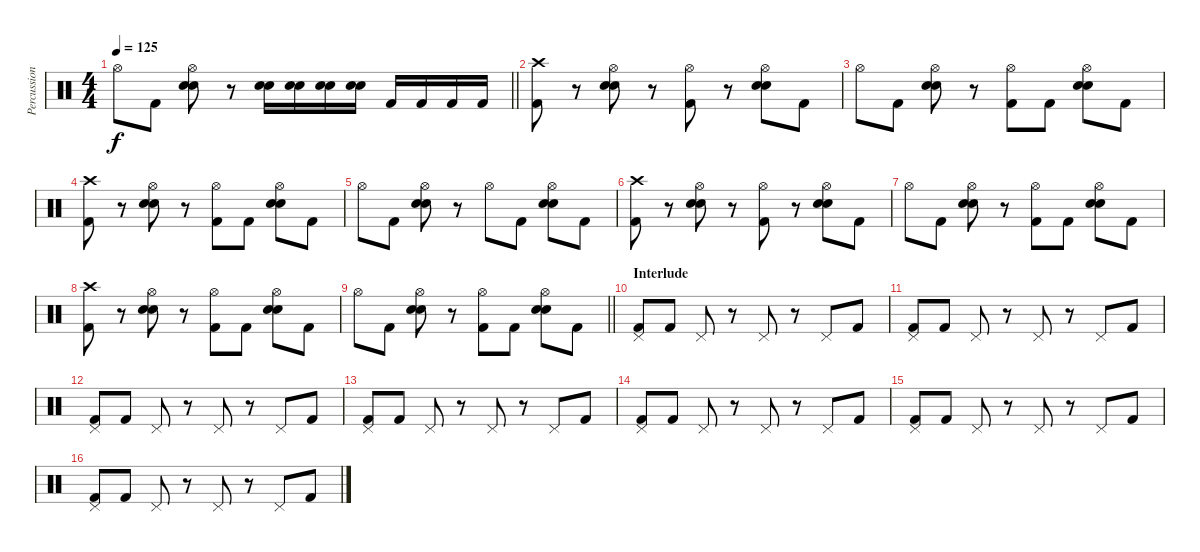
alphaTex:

\track ("Percussion" "Percussion") {instrument percussion}
\staff {score}
\articulation defaults
\ts (4 4)
\tempo 125
\clef neutral
\barLineRight lightlight
\ks c "Hi-Hat (open)".8{dy f} "Kick (hit) 2".8
("Hi-Hat (open)" "Snare (hit) 2" "Electric Snare (hit)").8 r.8 ("Snare (hit) 2" "Electric Snare (hit)").16 ("Snare (hit) 2" "Electric Snare (hit)").16 ("Snare (hit) 2" "Electric Snare (hit)").16 ("Snare (hit) 2" "Electric Snare (hit)").16 "Kick (hit) 2".16 "Kick (hit) 2".16 "Kick (hit) 2".16 "Kick (hit) 2".16 |
("Crash high (hit)" "Kick (hit) 2").8 r.8 ("Hi-Hat (open)" "Snare (hit) 2" "Electric Snare (hit)").8 r.8 ("Hi-Hat (open)" "Kick (hit) 2").8 r.8 ("Hi-Hat (open)" "Snare (hit) 2" "Electric Snare (hit)").8 "Kick (hit) 2".8 |
"Hi-Hat (open)".8 "Kick (hit) 2".8 ("Hi-Hat (open)" "Snare (hit) 2" "Electric Snare (hit)").8 r.8 ("Hi-Hat (open)" "Kick (hit) 2").8 "Kick (hit) 2".8 ("Hi-Hat (open)" "Snare (hit) 2" "Electric Snare (hit)").8 "Kick (hit) 2".8 |
("Crash high (hit)" "Kick (hit) 2").8 r.8 ("Hi-Hat (open)" "Snare (hit) 2" "Electric Snare (hit)").8 r.8 ("Hi-Hat (open)" "Kick (hit) 2").8 "Kick (hit) 2".8 ("Hi-Hat (open)" "Snare (hit) 2" "Electric Snare (hit)").8 "Kick (hit) 2".8 |
"Hi-Hat (open)".8 "Kick (hit) 2".8 ("Hi-Hat (open)" "Snare (hit) 2" "Electric Snare (hit)").8 r.8 "Hi-Hat (open)".8 "Kick (hit) 2".8 ("Hi-Hat (open)" "Snare (hit) 2" "Electric Snare (hit)").8 "Kick (hit) 2".8 |
("Crash high (hit)" "Kick (hit) 2").8 r.8 ("Hi-Hat (open)" "Snare (hit) 2" "Electric Snare (hit)").8 r.8 ("Hi-Hat (open)" "Kick (hit) 2").8 r.8 ("Hi-Hat (open)" "Snare (hit) 2" "Electric Snare (hit)").8 "Kick (hit) 2".8 |
"Hi-Hat (open)".8 "Kick (hit) 2".8 ("Hi-Hat (open)" "Snare (hit) 2" "Electric Snare (hit)").8 r.8 ("Hi-Hat (open)" "Kick (hit) 2").8 "Kick (hit) 2".8 ("Hi-Hat (open)" "Snare (hit) 2" "Electric Snare (hit)").8 "Kick (hit) 2".8 |
("Crash high (hit)" "Kick (hit) 2").8 r.8 ("Hi-Hat (open)" "Snare (hit) 2" "Electric Snare (hit)").8 r.8 ("Hi-Hat (open)" "Kick (hit) 2").8 "Kick (hit) 2".8 ("Hi-Hat (open)" "Snare (hit) 2" "Electric Snare (hit)").8 "Kick (hit) 2".8 |
\barLineRight lightlight "Hi-Hat (open)".8 "Kick (hit) 2".8
("Hi-Hat (open)" "Snare (hit) 2" "Electric Snare (hit)").8 r.8 ("Hi-Hat (open)" "Kick (hit) 2").8 "Kick (hit) 2".8 ("Hi-Hat (open)" "Snare (hit) 2" "Electric Snare (hit)").8 "Kick (hit) 2".8 |
\section ("" "Interlude")
("Pedal Hi-Hat (hit)" "Kick (hit) 2").8 "Kick (hit) 2".8 "Pedal Hi-Hat (hit)".8 r.8 "Pedal Hi-Hat (hit)".8 r.8 "Pedal Hi-Hat (hit)".8 "Kick (hit) 2".8 |
("Pedal Hi-Hat (hit)" "Kick (hit) 2").8 "Kick (hit) 2".8 "Pedal Hi-Hat (hit)".8 r.8 "Pedal Hi-Hat (hit)".8 r.8 "Pedal Hi-Hat (hit)".8 "Kick (hit) 2".8 |
("Pedal Hi-Hat (hit)" "Kick (hit) 2").8 "Kick (hit) 2".8 "Pedal Hi-Hat (hit)".8 r.8 "Pedal Hi-Hat (hit)".8 r.8 "Pedal Hi-Hat (hit)".8 "Kick (hit) 2".8 |
("Pedal Hi-Hat (hit)" "Kick (hit) 2").8 "Kick (hit) 2".8 "Pedal Hi-Hat (hit)".8 r.8 "Pedal Hi-Hat (hit)".8 r.8 "Pedal Hi-Hat (hit)".8 "Kick (hit) 2".8 |
("Pedal Hi-Hat (hit)" "Kick (hit) 2").8 "Kick (hit) 2".8 "Pedal Hi-Hat (hit)".8 r.8 "Pedal Hi-Hat (hit)".8 r.8 "Pedal Hi-Hat (hit)".8 "Kick (hit) 2".8 |
("Pedal Hi-Hat (hit)" "Kick (hit) 2").8 "Kick (hit) 2".8 "Pedal Hi-Hat (hit)".8 r.8 "Pedal Hi-Hat (hit)".8 r.8 "Pedal Hi-Hat (hit)".8 "Kick (hit) 2".8 |
("Pedal Hi-Hat (hit)" "Kick (hit) 2").8 "Kick (hit) 2".8 "Pedal Hi-Hat (hit)".8 r.8 "Pedal Hi-Hat (hit)".8 r.8 "Pedal Hi-Hat (hit)".8 "Kick (hit) 2".8
